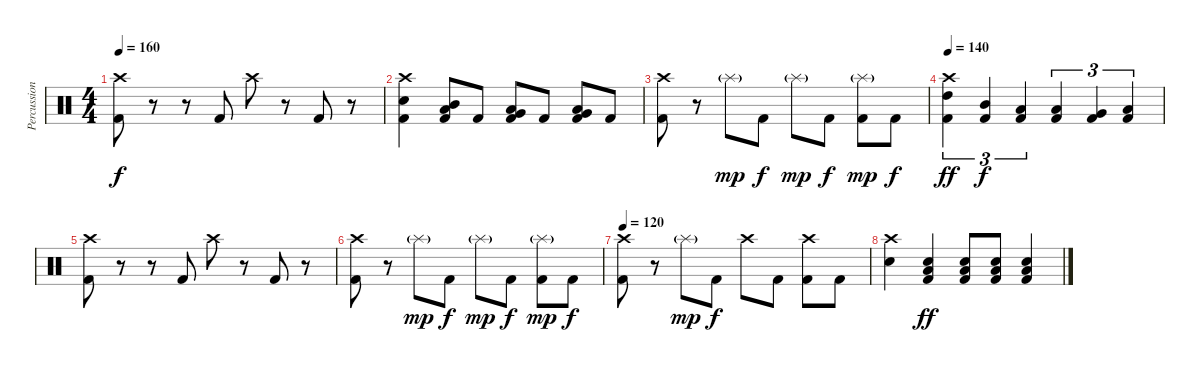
\track ("Percussion" "Percussion") {instrument percussion}
\staff {score}
\articulation defaults
\ts (4 4)
\tempo 160
\clef neutral
\ks c
("Crash high (hit)" "Kick (hit) 2").8{dy f} r.8 r.8 "Kick (hit) 2".8 "Crash high (hit)".8 r.8 "Kick (hit) 2".8 r.8 |
("Crash high (hit)" "Electric Snare (hit)" "Kick (hit) 2").4 ("Mid Tom (hit)" "Low Tom (hit)" "Kick (hit) 2").8 "Kick (hit) 2".8 ("Low Tom (hit)" "Very Low Tom (hit)" "Kick (hit) 2").8 "Kick (hit) 2".8 ("Very Low Tom (hit)" "Low Floor Tom (hit)" "Kick (hit) 2").8 "Kick (hit) 2".8 |
("Crash high (hit)" "Kick (hit) 2").8 r.8 "Splash (hit)"{g}.8{dy mp} "Kick (hit) 2".8{dy f} "Splash (hit)"{g}.8{dy mp} "Kick (hit) 2".8{dy f} ("Splash (hit)"{g} "Kick (hit) 2").8{dy mp} "Kick (hit) 2".8{dy f} |
\tempo 140
("Crash high (hit)" "High Tom (hit)" "Kick (hit) 2").4{tu (3 2) dy ff} ("Mid Tom (hit)" "Kick (hit) 2").4{tu (3 2) dy f} ("Low Tom (hit)" "Kick (hit) 2").4{tu (3 2)} ("Low Tom (hit)" "Kick (hit) 2").4{tu (3 2)} ("Very Low Tom (hit)" "Kick (hit) 2").4{tu (3 2)} ("Low Floor Tom (hit)" "Kick (hit) 2").4{tu (3 2)} |
("Crash high (hit)" "Kick (hit) 2").8 r.8 r.8 "Kick (hit) 2".8 "Crash high (hit)".8 r.8 "Kick (hit) 2".8 r.8 |
("Crash high (hit)" "Kick (hit) 2").8 r.8 "Splash (hit)"{g}.8{dy mp} "Kick (hit) 2".8{dy f} "Splash (hit)"{g}.8{dy mp} "Kick (hit) 2".8{dy f} ("Splash (hit)"{g} "Kick (hit) 2").8{dy mp} "Kick (hit) 2".8{dy f} |
\tempo 120
("Crash high (hit)" "Kick (hit) 2").8 r.8 "Splash (hit)"{g}.8{dy mp} "Kick (hit) 2".8{dy f} "Crash high (hit)".8 "Kick (hit) 2".8 ("Crash high (hit)" "Kick (hit) 2").8 "Kick (hit) 2".8 |
("Crash high (hit)" "Electric Snare (hit)").4 ("Low Floor Tom (hit)" "Electric Snare (hit)" "Kick (hit) 2").4{dy ff} ("Low Floor Tom (hit)" "Electric Snare (hit)" "Kick (hit) 2").8 ("Low Floor Tom (hit)" "Electric Snare (hit)" "Kick (hit) 2").8 ("Low Floor Tom (hit)" "Electric Snare (hit)" "Kick (hit) 2").4
